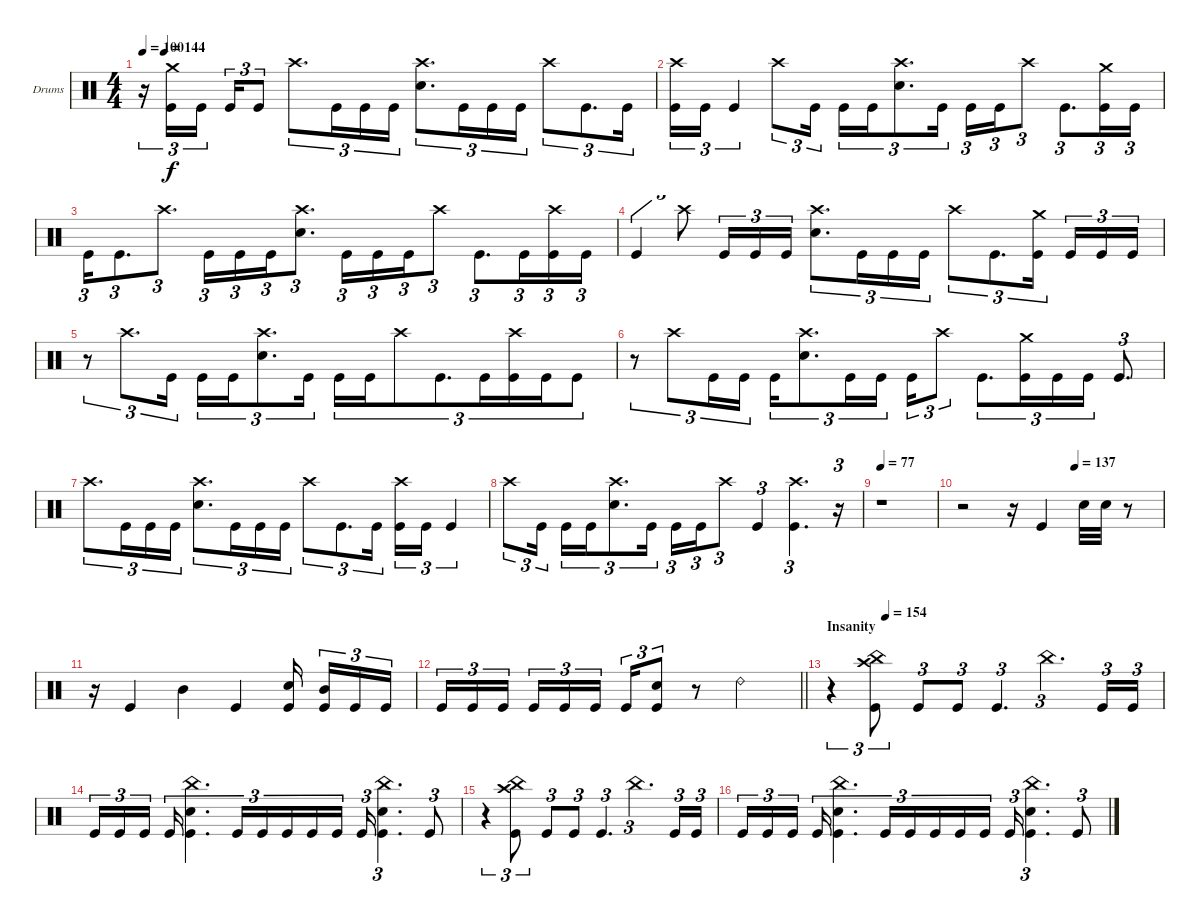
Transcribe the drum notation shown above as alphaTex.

\bracketExtendMode groupsimilarinstruments
\firstSystemTrackNameOrientation horizontal
\otherSystemsTrackNameOrientation horizontal
\track ("Drumkit" "Drums") {instrument percussion}
\staff {score}
\articulation defaults
\ts (4 4)
\tempo 100
\tempo (144 0.0416667)
\clef neutral
\ks c
r.16{tu (3 2) dy f} ("Crash medium (hit)" "Kick (hit)").16{tu (3 2)} "Kick (hit)".16{tu (3 2)} "Kick (hit)".16{tu (3 2)} "Kick (hit)".8{tu (3 2)} "Crash high (hit)".8{d tu (3 2)} "Kick (hit)".16{tu (3 2)} "Kick (hit)".16{tu (3 2)} "Kick (hit)".16{tu (3 2)} ("Crash high (hit)" "Snare (hit) 2").8{d tu (3 2)} "Kick (hit)".16{tu (3 2)} "Kick (hit)".16{tu (3 2)} "Kick (hit)".16{tu (3 2)} "Crash high (hit)".8{tu (3 2)} "Kick (hit)".8{d tu (3 2)} "Kick (hit)".16{tu (3 2)} |
("Crash high (hit)" "Kick (hit)").16{tu (3 2)} "Kick (hit)".16{tu (3 2)} "Kick (hit)".4{tu (3 2)} "Crash high (hit)".8{tu (3 2)} "Kick (hit)".16{tu (3 2)} "Kick (hit)".16{tu (3 2)} "Kick (hit)".16{tu (3 2)} ("Crash high (hit)" "Snare (hit) 2").8{d tu (3 2)} "Kick (hit)".16{tu (3 2)} "Kick (hit)".16{tu (3 2)} "Kick (hit)".16{tu (3 2)} "Crash high (hit)".8{tu (3 2)} "Kick (hit)".8{d tu (3 2)} ("Crash medium (hit)" "Kick (hit)").16{tu (3 2)} "Kick (hit)".16{tu (3 2)} |
"Kick (hit)".16{tu (3 2)} "Kick (hit)".8{d tu (3 2)} "Crash high (hit)".8{d tu (3 2)} "Kick (hit)".16{tu (3 2)} "Kick (hit)".16{tu (3 2)} "Kick (hit)".16{tu (3 2)} ("Crash high (hit)" "Snare (hit) 2").8{d tu (3 2)} "Kick (hit)".16{tu (3 2)} "Kick (hit)".16{tu (3 2)} "Kick (hit)".16{tu (3 2)} "Crash high (hit)".8{tu (3 2)} "Kick (hit)".8{d tu (3 2)} "Kick (hit)".16{tu (3 2)} ("Crash high (hit)" "Kick (hit)").16{tu (3 2)} "Kick (hit)".16{tu (3 2)} |
"Kick (hit)".4{tu (3 2)} "Crash high (hit)".8{tu (3 2)} "Kick (hit)".16{tu (3 2)} "Kick (hit)".16{tu (3 2)} "Kick (hit)".16{tu (3 2)} ("Crash high (hit)" "Snare (hit) 2").8{d tu (3 2)} "Kick (hit)".16{tu (3 2)} "Kick (hit)".16{tu (3 2)} "Kick (hit)".16{tu (3 2)} "Crash high (hit)".8{tu (3 2)} "Kick (hit)".8{d tu (3 2)} ("Crash medium (hit)" "Kick (hit)").16{tu (3 2)} "Kick (hit)".16{tu (3 2)} "Kick (hit)".16{tu (3 2)} "Kick (hit)".16{tu (3 2)} |
r.8{tu (3 2)} "Crash high (hit)".8{d tu (3 2)} "Kick (hit)".16{tu (3 2)} "Kick (hit)".16{tu (3 2)} "Kick (hit)".16{tu (3 2)} ("Crash high (hit)" "Snare (hit) 2").8{d tu (3 2)} "Kick (hit)".16{tu (3 2)} "Kick (hit)".16{tu (3 2)} "Kick (hit)".16{tu (3 2)} "Crash high (hit)".8{tu (3 2)} "Kick (hit)".8{d tu (3 2)} "Kick (hit)".16{tu (3 2)} ("Crash high (hit)" "Kick (hit)").16{tu (3 2)} "Kick (hit)".16{tu (3 2)} "Kick (hit)".8{tu (3 2)} |
r.8{tu (3 2)} "Crash high (hit)".8{tu (3 2)} "Kick (hit)".16{tu (3 2)} "Kick (hit)".16{tu (3 2)} "Kick (hit)".16{tu (3 2)} ("Crash high (hit)" "Snare (hit) 2").8{d tu (3 2)} "Kick (hit)".16{tu (3 2)} "Kick (hit)".16{tu (3 2)} "Kick (hit)".16{tu (3 2)} "Crash high (hit)".8{tu (3 2)} "Kick (hit)".8{d tu (3 2)} ("Crash medium (hit)" "Kick (hit)").16{tu (3 2)} "Kick (hit)".16{tu (3 2)} "Kick (hit)".16{tu (3 2)} "Kick (hit)".8{d tu (3 2)} |
"Crash high (hit)".8{d tu (3 2)} "Kick (hit)".16{tu (3 2)} "Kick (hit)".16{tu (3 2)} "Kick (hit)".16{tu (3 2)} ("Crash high (hit)" "Snare (hit) 2").8{d tu (3 2)} "Kick (hit)".16{tu (3 2)} "Kick (hit)".16{tu (3 2)} "Kick (hit)".16{tu (3 2)} "Crash high (hit)".8{tu (3 2)} "Kick (hit)".8{d tu (3 2)} "Kick (hit)".16{tu (3 2)} ("Crash high (hit)" "Kick (hit)").16{tu (3 2)} "Kick (hit)".16{tu (3 2)} "Kick (hit)".4{tu (3 2)} |
"Crash high (hit)".8{tu (3 2)} "Kick (hit)".16{tu (3 2)} "Kick (hit)".16{tu (3 2)} "Kick (hit)".16{tu (3 2)} ("Crash high (hit)" "Snare (hit) 2").8{d tu (3 2)} "Kick (hit)".16{tu (3 2)} "Kick (hit)".16{tu (3 2)} "Kick (hit)".16{tu (3 2)} "Crash high (hit)".8{tu (3 2)} "Kick (hit)".4{tu (3 2)} ("Crash high (hit)" "Kick (hit)").4{d tu (3 2)} r.16{tu (3 2)} |
\tempo 77
r.1 |
\tempo (137 0.5625)
r.2 r.16 "Kick (hit)".4 "Snare (hit) 2".32 "Snare (hit) 2".32 r.8 |
r.16 "Kick (hit)".4 "Mid Tom (hit)".4 "Kick (hit)".4 ("Snare (hit) 2" "Kick (hit)").16 ("Mid Tom (hit)" "Kick (hit)").16{tu (3 2)} "Kick (hit)".16{tu (3 2)} "Kick (hit)".16{tu (3 2)} |
\barLineRight lightlight "Kick (hit)".16{tu (3 2)} "Kick (hit)".16{tu (3 2)} "Kick (hit)".16{tu (3 2)} "Kick (hit)".16{tu (3 2)} "Kick (hit)".16{tu (3 2)} "Kick (hit)".16{tu (3 2)} "Kick (hit)".16{tu (3 2)}
("Snare (hit) 2" "Kick (hit)").8{tu (3 2)} r.8 "Ride (bell) 2".2 |
\section ("" "Insanity")
\tempo (154 0.166667)
r.4{tu (3 2)} ("China (hit)" "Crash high (hit)" "Kick (hit)").8{tu (3 2)} "Kick (hit)".8{tu (3 2)} "Kick (hit)".8{tu (3 2)} "Kick (hit)".4{d tu (3 2)} "China (hit)".4{d tu (3 2)} "Kick (hit)".16{tu (3 2)} "Kick (hit)".16{tu (3 2)} |
"Kick (hit)".16{tu (3 2)} "Kick (hit)".16{tu (3 2)} "Kick (hit)".16{tu (3 2)} "Kick (hit)".16{tu (3 2)} ("China (hit)" "Snare (hit) 2" "Kick (hit)").4{d tu (3 2)} "Kick (hit)".16{tu (3 2)} "Kick (hit)".16{tu (3 2)} "Kick (hit)".16{tu (3 2)} "Kick (hit)".16{tu (3 2)} "Kick (hit)".16{tu (3 2)} "Kick (hit)".16{tu (3 2)} ("China (hit)" "Snare (hit) 2" "Kick (hit)").4{d tu (3 2)} "Kick (hit)".8{tu (3 2)} |
r.4{tu (3 2)} ("China (hit)" "Crash high (hit)" "Kick (hit)").8{tu (3 2)} "Kick (hit)".8{tu (3 2)} "Kick (hit)".8{tu (3 2)} "Kick (hit)".4{d tu (3 2)} "China (hit)".4{d tu (3 2)} "Kick (hit)".16{tu (3 2)} "Kick (hit)".16{tu (3 2)} |
"Kick (hit)".16{tu (3 2)} "Kick (hit)".16{tu (3 2)} "Kick (hit)".16{tu (3 2)} "Kick (hit)".16{tu (3 2)} ("China (hit)" "Snare (hit) 2" "Kick (hit)").4{d tu (3 2)} "Kick (hit)".16{tu (3 2)} "Kick (hit)".16{tu (3 2)} "Kick (hit)".16{tu (3 2)} "Kick (hit)".16{tu (3 2)} "Kick (hit)".16{tu (3 2)} "Kick (hit)".16{tu (3 2)} ("China (hit)" "Snare (hit) 2" "Kick (hit)").4{d tu (3 2)} "Kick (hit)".8{tu (3 2)}
